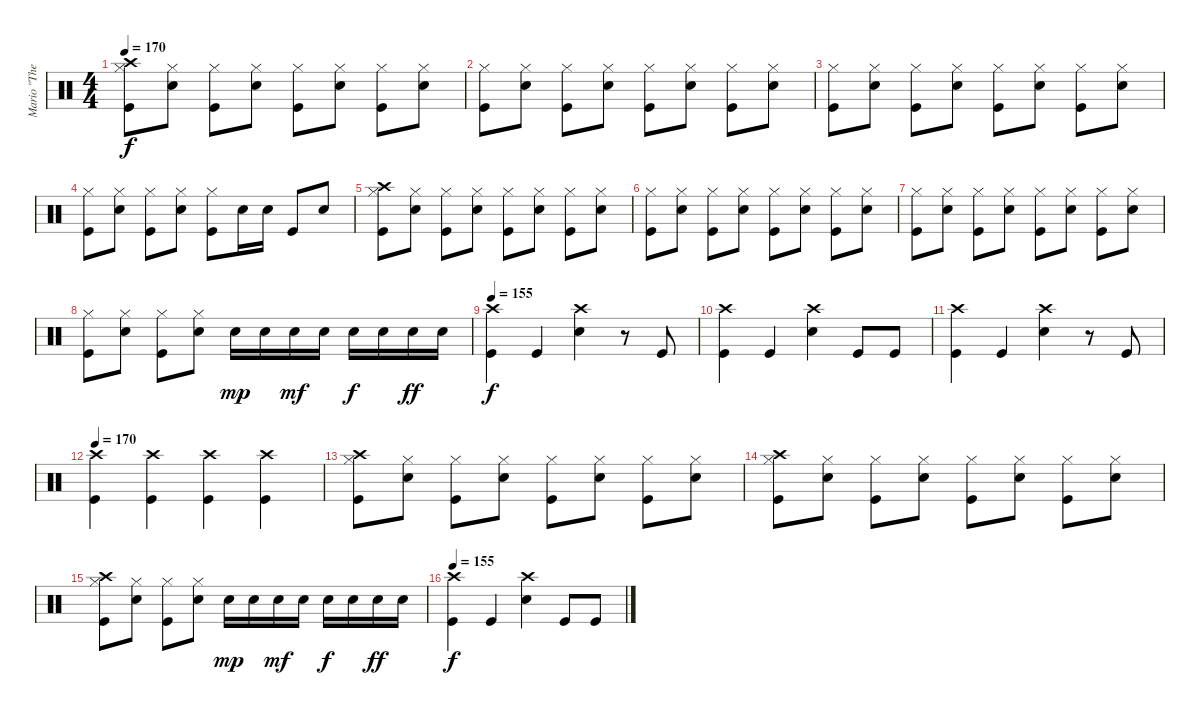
\track ("Mario \"The Dremmel\" Hirt" "Mario \"The") {instrument percussion}
\staff {score}
\articulation defaults
\ts (4 4)
\tempo 170
\clef neutral
\ks c
("Crash high (hit)" "Hi-Hat (closed)" "Kick (hit)").8{dy f} ("Hi-Hat (closed)" "Electric Snare (hit)").8 ("Hi-Hat (closed)" "Kick (hit)").8 ("Hi-Hat (closed)" "Electric Snare (hit)").8 ("Hi-Hat (closed)" "Kick (hit)").8 ("Hi-Hat (closed)" "Electric Snare (hit)").8 ("Hi-Hat (closed)" "Kick (hit)").8 ("Hi-Hat (closed)" "Electric Snare (hit)").8 |
("Hi-Hat (closed)" "Kick (hit)").8 ("Hi-Hat (closed)" "Electric Snare (hit)").8 ("Hi-Hat (closed)" "Kick (hit)").8 ("Hi-Hat (closed)" "Electric Snare (hit)").8 ("Hi-Hat (closed)" "Kick (hit)").8 ("Hi-Hat (closed)" "Electric Snare (hit)").8 ("Hi-Hat (closed)" "Kick (hit)").8 ("Hi-Hat (closed)" "Electric Snare (hit)").8 |
("Hi-Hat (closed)" "Kick (hit)").8 ("Hi-Hat (closed)" "Electric Snare (hit)").8 ("Hi-Hat (closed)" "Kick (hit)").8 ("Hi-Hat (closed)" "Electric Snare (hit)").8 ("Hi-Hat (closed)" "Kick (hit)").8 ("Hi-Hat (closed)" "Electric Snare (hit)").8 ("Hi-Hat (closed)" "Kick (hit)").8 ("Hi-Hat (closed)" "Electric Snare (hit)").8 |
("Hi-Hat (closed)" "Kick (hit)").8 ("Hi-Hat (closed)" "Electric Snare (hit)").8 ("Hi-Hat (closed)" "Kick (hit)").8 ("Hi-Hat (closed)" "Electric Snare (hit)").8 ("Hi-Hat (closed)" "Kick (hit)").8 "Electric Snare (hit)".16 "Electric Snare (hit)".16 "Kick (hit)".8 "Electric Snare (hit)".8 |
("Crash high (hit)" "Hi-Hat (closed)" "Kick (hit)").8 ("Hi-Hat (closed)" "Electric Snare (hit)").8 ("Hi-Hat (closed)" "Kick (hit)").8 ("Hi-Hat (closed)" "Electric Snare (hit)").8 ("Hi-Hat (closed)" "Kick (hit)").8 ("Hi-Hat (closed)" "Electric Snare (hit)").8 ("Hi-Hat (closed)" "Kick (hit)").8 ("Hi-Hat (closed)" "Electric Snare (hit)").8 |
("Hi-Hat (closed)" "Kick (hit)").8 ("Hi-Hat (closed)" "Electric Snare (hit)").8 ("Hi-Hat (closed)" "Kick (hit)").8 ("Hi-Hat (closed)" "Electric Snare (hit)").8 ("Hi-Hat (closed)" "Kick (hit)").8 ("Hi-Hat (closed)" "Electric Snare (hit)").8 ("Hi-Hat (closed)" "Kick (hit)").8 ("Hi-Hat (closed)" "Electric Snare (hit)").8 |
("Hi-Hat (closed)" "Kick (hit)").8 ("Hi-Hat (closed)" "Electric Snare (hit)").8 ("Hi-Hat (closed)" "Kick (hit)").8 ("Hi-Hat (closed)" "Electric Snare (hit)").8 ("Hi-Hat (closed)" "Kick (hit)").8 ("Hi-Hat (closed)" "Electric Snare (hit)").8 ("Hi-Hat (closed)" "Kick (hit)").8 ("Hi-Hat (closed)" "Electric Snare (hit)").8 |
("Hi-Hat (closed)" "Kick (hit)").8 ("Hi-Hat (closed)" "Electric Snare (hit)").8 ("Hi-Hat (closed)" "Kick (hit)").8 ("Hi-Hat (closed)" "Electric Snare (hit)").8 "Electric Snare (hit)".16{dy mp} "Electric Snare (hit)".16 "Electric Snare (hit)".16{dy mf} "Electric Snare (hit)".16 "Electric Snare (hit)".16{dy f} "Electric Snare (hit)".16 "Electric Snare (hit)".16{dy ff} "Electric Snare (hit)".16 |
\tempo 155
("Crash high (hit)" "Kick (hit)").4{dy f} "Kick (hit)".4 ("Crash high (hit)" "Electric Snare (hit)").4 r.8 "Kick (hit)".8 |
("Crash high (hit)" "Kick (hit)").4 "Kick (hit)".4 ("Crash high (hit)" "Electric Snare (hit)").4 "Kick (hit)".8 "Kick (hit)".8 |
("Crash high (hit)" "Kick (hit)").4 "Kick (hit)".4 ("Crash high (hit)" "Electric Snare (hit)").4 r.8 "Kick (hit)".8 |
\tempo 170
("Crash high (hit)" "Kick (hit)").4 ("Crash high (hit)" "Kick (hit)").4 ("Crash high (hit)" "Kick (hit)").4 ("Crash high (hit)" "Kick (hit)").4 |
("Crash high (hit)" "Hi-Hat (closed)" "Kick (hit)").8 ("Hi-Hat (closed)" "Electric Snare (hit)").8 ("Hi-Hat (closed)" "Kick (hit)").8 ("Hi-Hat (closed)" "Electric Snare (hit)").8 ("Hi-Hat (closed)" "Kick (hit)").8 ("Hi-Hat (closed)" "Electric Snare (hit)").8 ("Hi-Hat (closed)" "Kick (hit)").8 ("Hi-Hat (closed)" "Electric Snare (hit)").8 |
("Crash high (hit)" "Hi-Hat (closed)" "Kick (hit)").8 ("Hi-Hat (closed)" "Electric Snare (hit)").8 ("Hi-Hat (closed)" "Kick (hit)").8 ("Hi-Hat (closed)" "Electric Snare (hit)").8 ("Hi-Hat (closed)" "Kick (hit)").8 ("Hi-Hat (closed)" "Electric Snare (hit)").8 ("Hi-Hat (closed)" "Kick (hit)").8 ("Hi-Hat (closed)" "Electric Snare (hit)").8 |
("Crash high (hit)" "Hi-Hat (closed)" "Kick (hit)").8 ("Hi-Hat (closed)" "Electric Snare (hit)").8 ("Hi-Hat (closed)" "Kick (hit)").8 ("Hi-Hat (closed)" "Electric Snare (hit)").8 "Electric Snare (hit)".16{dy mp} "Electric Snare (hit)".16 "Electric Snare (hit)".16{dy mf} "Electric Snare (hit)".16 "Electric Snare (hit)".16{dy f} "Electric Snare (hit)".16 "Electric Snare (hit)".16{dy ff} "Electric Snare (hit)".16 |
\tempo 155
("Crash high (hit)" "Kick (hit)").4{dy f} "Kick (hit)".4 ("Crash high (hit)" "Electric Snare (hit)").4 "Kick (hit)".8 "Kick (hit)".8
